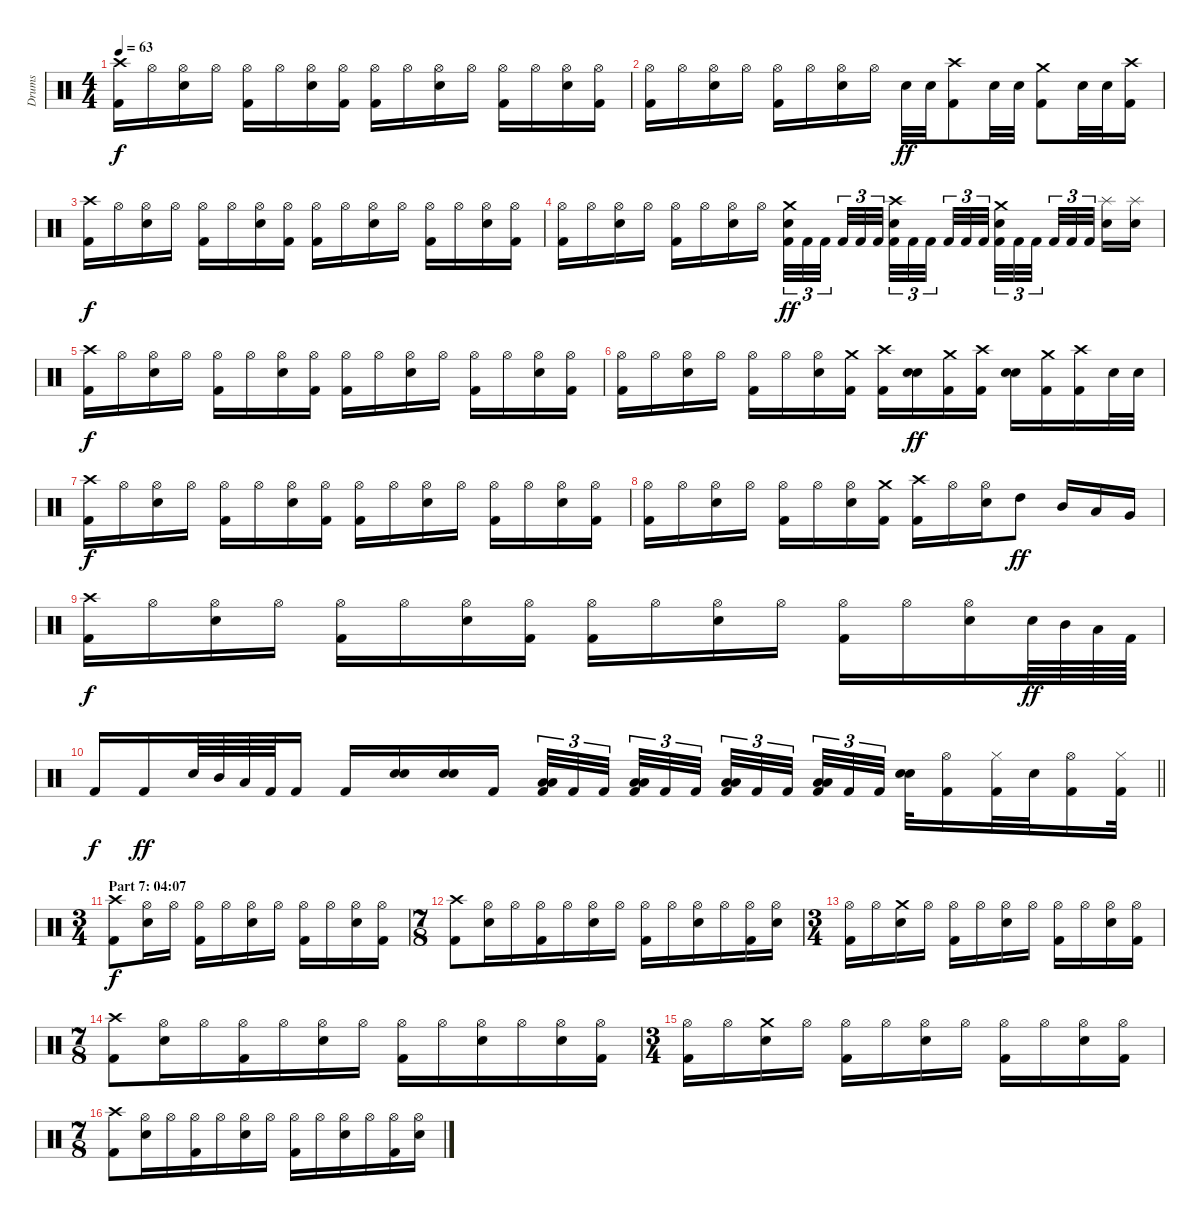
\track ("Drums" "Drums") {instrument percussion}
\staff {score}
\articulation defaults
\ts (4 4)
\tempo 63
\clef neutral
\ks c
("Crash high (hit)" "Kick (hit) 2").16{dy f} "Hi-Hat (open)".16 ("Hi-Hat (open)" "Electric Snare (hit)").16 "Hi-Hat (open)".16 ("Hi-Hat (open)" "Kick (hit) 2").16 "Hi-Hat (open)".16 ("Hi-Hat (open)" "Electric Snare (hit)").16 ("Hi-Hat (open)" "Kick (hit) 2").16 ("Hi-Hat (open)" "Kick (hit) 2").16 "Hi-Hat (open)".16 ("Hi-Hat (open)" "Electric Snare (hit)").16 "Hi-Hat (open)".16 ("Hi-Hat (open)" "Kick (hit) 2").16 "Hi-Hat (open)".16 ("Hi-Hat (open)" "Electric Snare (hit)").16 ("Hi-Hat (open)" "Kick (hit) 2").16 |
("Hi-Hat (open)" "Kick (hit) 2").16 "Hi-Hat (open)".16 ("Hi-Hat (open)" "Electric Snare (hit)").16 "Hi-Hat (open)".16 ("Hi-Hat (open)" "Kick (hit) 2").16 "Hi-Hat (open)".16 ("Hi-Hat (open)" "Electric Snare (hit)").16 "Hi-Hat (open)".16 "Electric Snare (hit)".32{dy ff} "Electric Snare (hit)".32 ("Crash high (hit)" "Kick (hit) 2").8 "Electric Snare (hit)".32 "Electric Snare (hit)".32 ("Crash medium (hit)" "Kick (hit) 2").8 "Electric Snare (hit)".32 "Electric Snare (hit)".32 ("Crash high (hit)" "Kick (hit) 2").16 |
("Crash high (hit)" "Kick (hit) 2").16{dy f} "Hi-Hat (open)".16 ("Hi-Hat (open)" "Electric Snare (hit)").16 "Hi-Hat (open)".16 ("Hi-Hat (open)" "Kick (hit) 2").16 "Hi-Hat (open)".16 ("Hi-Hat (open)" "Electric Snare (hit)").16 ("Hi-Hat (open)" "Kick (hit) 2").16 ("Hi-Hat (open)" "Kick (hit) 2").16 "Hi-Hat (open)".16 ("Hi-Hat (open)" "Electric Snare (hit)").16 "Hi-Hat (open)".16 ("Hi-Hat (open)" "Kick (hit) 2").16 "Hi-Hat (open)".16 ("Hi-Hat (open)" "Electric Snare (hit)").16 ("Hi-Hat (open)" "Kick (hit) 2").16 |
("Hi-Hat (open)" "Kick (hit) 2").16 "Hi-Hat (open)".16 ("Hi-Hat (open)" "Electric Snare (hit)").16 "Hi-Hat (open)".16 ("Hi-Hat (open)" "Kick (hit) 2").16 "Hi-Hat (open)".16 ("Hi-Hat (open)" "Electric Snare (hit)").16 "Hi-Hat (open)".16 ("Crash medium (hit)" "Electric Snare (hit)" "Kick (hit) 2").32{tu (3 2) dy ff} "Kick (hit) 2".32{tu (3 2)} "Kick (hit) 2".32{tu (3 2) beam splitsecondary} "Kick (hit) 2".32{tu (3 2)} "Kick (hit) 2".32{tu (3 2)} "Kick (hit) 2".32{tu (3 2) beam splitsecondary} ("Crash high (hit)" "Electric Snare (hit)" "Kick (hit) 2").32{tu (3 2)} "Kick (hit) 2".32{tu (3 2)} "Kick (hit) 2".32{tu (3 2) beam splitsecondary} "Kick (hit) 2".32{tu (3 2)} "Kick (hit) 2".32{tu (3 2)} "Kick (hit) 2".32{tu (3 2)} ("Crash medium (hit)" "Electric Snare (hit)" "Kick (hit) 2").32{tu (3 2)} "Kick (hit) 2".32{tu (3 2)} "Kick (hit) 2".32{tu (3 2) beam splitsecondary} "Kick (hit) 2".32{tu (3 2)} "Kick (hit) 2".32{tu (3 2)} "Kick (hit) 2".32{tu (3 2) beam splitsecondary} ("Splash (hit)" "Electric Snare (hit)").16 ("Splash (hit)" "Electric Snare (hit)").16 |
("Crash high (hit)" "Kick (hit) 2").16{dy f} "Hi-Hat (open)".16 ("Hi-Hat (open)" "Electric Snare (hit)").16 "Hi-Hat (open)".16 ("Hi-Hat (open)" "Kick (hit) 2").16 "Hi-Hat (open)".16 ("Hi-Hat (open)" "Electric Snare (hit)").16 ("Hi-Hat (open)" "Kick (hit) 2").16 ("Hi-Hat (open)" "Kick (hit) 2").16 "Hi-Hat (open)".16 ("Hi-Hat (open)" "Electric Snare (hit)").16 "Hi-Hat (open)".16 ("Hi-Hat (open)" "Kick (hit) 2").16 "Hi-Hat (open)".16 ("Hi-Hat (open)" "Electric Snare (hit)").16 ("Hi-Hat (open)" "Kick (hit) 2").16 |
("Hi-Hat (open)" "Kick (hit) 2").16 "Hi-Hat (open)".16 ("Hi-Hat (open)" "Electric Snare (hit)").16 "Hi-Hat (open)".16 ("Hi-Hat (open)" "Kick (hit) 2").16 "Hi-Hat (open)".16 ("Hi-Hat (open)" "Electric Snare (hit)").16 ("Crash medium (hit)" "Kick (hit) 2").16 ("Crash high (hit)" "Kick (hit) 2").16 ("Electric Snare (hit)" "Electric Snare (hit)").16{bu 120 dy ff} ("Crash medium (hit)" "Kick (hit) 2").16 ("Crash high (hit)" "Kick (hit) 2").16 ("Electric Snare (hit)" "Electric Snare (hit)").16{bu 120} ("Crash medium (hit)" "Kick (hit) 2").16 ("Crash high (hit)" "Kick (hit) 2").16 "Electric Snare (hit)".32 "Electric Snare (hit)".32 |
("Crash high (hit)" "Kick (hit) 2").16{dy f} "Hi-Hat (open)".16 ("Hi-Hat (open)" "Electric Snare (hit)").16 "Hi-Hat (open)".16 ("Hi-Hat (open)" "Kick (hit) 2").16 "Hi-Hat (open)".16 ("Hi-Hat (open)" "Electric Snare (hit)").16 ("Hi-Hat (open)" "Kick (hit) 2").16 ("Hi-Hat (open)" "Kick (hit) 2").16 "Hi-Hat (open)".16 ("Hi-Hat (open)" "Electric Snare (hit)").16 "Hi-Hat (open)".16 ("Hi-Hat (open)" "Kick (hit) 2").16 "Hi-Hat (open)".16 ("Hi-Hat (open)" "Electric Snare (hit)").16 ("Hi-Hat (open)" "Kick (hit) 2").16 |
("Hi-Hat (open)" "Kick (hit) 2").16 "Hi-Hat (open)".16 ("Hi-Hat (open)" "Electric Snare (hit)").16 "Hi-Hat (open)".16 ("Hi-Hat (open)" "Kick (hit) 2").16 "Hi-Hat (open)".16 ("Hi-Hat (open)" "Electric Snare (hit)").16 ("Crash medium (hit)" "Kick (hit) 2").16 ("Crash high (hit)" "Kick (hit) 2").16 "Hi-Hat (open)".16 ("Hi-Hat (open)" "Electric Snare (hit)").16 "High Tom (hit)".8{dy ff} "Mid Tom (hit)".16 "Low Tom (hit)".16 "Very Low Tom (hit)".16 |
("Crash high (hit)" "Kick (hit) 2").16{dy f} "Hi-Hat (open)".16 ("Hi-Hat (open)" "Electric Snare (hit)").16 "Hi-Hat (open)".16 ("Hi-Hat (open)" "Kick (hit) 2").16 "Hi-Hat (open)".16 ("Hi-Hat (open)" "Electric Snare (hit)").16 ("Hi-Hat (open)" "Kick (hit) 2").16 ("Hi-Hat (open)" "Kick (hit) 2").16 "Hi-Hat (open)".16 ("Hi-Hat (open)" "Electric Snare (hit)").16 "Hi-Hat (open)".16 ("Hi-Hat (open)" "Kick (hit) 2").16 "Hi-Hat (open)".16 ("Hi-Hat (open)" "Electric Snare (hit)").16 "Electric Snare (hit)".64{dy ff} "Mid Tom (hit)".64 "Low Tom (hit)".64 "Kick (hit) 2".64 |
\barLineRight lightlight "Kick (hit) 2".16{dy f} "Kick (hit) 2".16{dy ff} "Electric Snare (hit)".64 "Mid Tom (hit)".64 "Low Tom (hit)".64 "Kick (hit) 2".64 "Kick (hit) 2".16 "Kick (hit) 2".16
("Electric Snare (hit)" "Electric Snare (hit)").16{bu 120} ("Electric Snare (hit)" "Electric Snare (hit)").16{bu 120} "Kick (hit) 2".16 ("Low Tom (hit)" "Low Floor Tom (hit)" "Kick (hit) 2").32{tu (3 2) bd 60} "Kick (hit) 2".32{tu (3 2)} "Kick (hit) 2".32{tu (3 2) beam splitsecondary} ("Low Tom (hit)" "Low Floor Tom (hit)" "Kick (hit) 2").32{tu (3 2) bd 60} "Kick (hit) 2".32{tu (3 2)} "Kick (hit) 2".32{tu (3 2) beam splitsecondary} ("Low Tom (hit)" "Low Floor Tom (hit)" "Kick (hit) 2").32{tu (3 2) bd 60} "Kick (hit) 2".32{tu (3 2)} "Kick (hit) 2".32{tu (3 2) beam splitsecondary} ("Low Tom (hit)" "Low Floor Tom (hit)" "Kick (hit) 2").32{tu (3 2) bd 60} "Kick (hit) 2".32{tu (3 2)} "Kick (hit) 2".32{tu (3 2)} ("Electric Snare (hit)" "Electric Snare (hit)").32{bu 60} ("Hi-Hat (open)" "Kick (hit) 2").16 ("Hi-Hat (closed)" "Kick (hit) 2").32 "Electric Snare (hit)".32 ("Hi-Hat (open)" "Kick (hit) 2").16 ("Hi-Hat (closed)" "Kick (hit) 2").32 |
\ts (3 4)
\section ("" "Part 7: 04:07")
("Crash high (hit)" "Kick (hit) 2").8{dy f} ("Hi-Hat (open)" "Electric Snare (hit)").16 "Hi-Hat (open)".16 ("Hi-Hat (open)" "Kick (hit) 2").16 "Hi-Hat (open)".16 ("Hi-Hat (open)" "Electric Snare (hit)").16 "Hi-Hat (open)".16 ("Hi-Hat (open)" "Kick (hit) 2").16 "Hi-Hat (open)".16 ("Hi-Hat (open)" "Electric Snare (hit)").16 ("Hi-Hat (open)" "Kick (hit) 2").16 |
\ts (7 8)
("Crash high (hit)" "Kick (hit) 2").8 ("Hi-Hat (open)" "Electric Snare (hit)").16 "Hi-Hat (open)".16 ("Hi-Hat (open)" "Kick (hit) 2").16 "Hi-Hat (open)".16 ("Hi-Hat (open)" "Electric Snare (hit)").16 "Hi-Hat (open)".16 ("Hi-Hat (open)" "Kick (hit) 2").16 "Hi-Hat (open)".16 ("Hi-Hat (open)" "Electric Snare (hit)").16 "Hi-Hat (open)".16 ("Hi-Hat (open)" "Kick (hit) 2").16 ("Hi-Hat (open)" "Electric Snare (hit)").16 |
\ts (3 4)
("Hi-Hat (open)" "Kick (hit) 2").16 "Hi-Hat (open)".16 ("Crash medium (hit)" "Electric Snare (hit)").16 "Hi-Hat (open)".16 ("Hi-Hat (open)" "Kick (hit) 2").16 "Hi-Hat (open)".16 ("Hi-Hat (open)" "Electric Snare (hit)").16 "Hi-Hat (open)".16 ("Hi-Hat (open)" "Kick (hit) 2").16 "Hi-Hat (open)".16 ("Hi-Hat (open)" "Electric Snare (hit)").16 ("Hi-Hat (open)" "Kick (hit) 2").16 |
\ts (7 8)
("Crash high (hit)" "Kick (hit) 2").8 ("Hi-Hat (open)" "Electric Snare (hit)").16 "Hi-Hat (open)".16 ("Hi-Hat (open)" "Kick (hit) 2").16 "Hi-Hat (open)".16 ("Hi-Hat (open)" "Electric Snare (hit)").16 "Hi-Hat (open)".16 ("Hi-Hat (open)" "Kick (hit) 2").16 "Hi-Hat (open)".16 ("Hi-Hat (open)" "Electric Snare (hit)").16 "Hi-Hat (open)".16 ("Hi-Hat (open)" "Electric Snare (hit)").16 ("Hi-Hat (open)" "Kick (hit) 2").16 |
\ts (3 4)
("Hi-Hat (open)" "Kick (hit) 2").16 "Hi-Hat (open)".16 ("Crash medium (hit)" "Electric Snare (hit)").16 "Hi-Hat (open)".16 ("Hi-Hat (open)" "Kick (hit) 2").16 "Hi-Hat (open)".16 ("Hi-Hat (open)" "Electric Snare (hit)").16 "Hi-Hat (open)".16 ("Hi-Hat (open)" "Kick (hit) 2").16 "Hi-Hat (open)".16 ("Hi-Hat (open)" "Electric Snare (hit)").16 ("Hi-Hat (open)" "Kick (hit) 2").16 |
\ts (7 8)
("Crash high (hit)" "Kick (hit) 2").8 ("Hi-Hat (open)" "Electric Snare (hit)").16 "Hi-Hat (open)".16 ("Hi-Hat (open)" "Kick (hit) 2").16 "Hi-Hat (open)".16 ("Hi-Hat (open)" "Electric Snare (hit)").16 "Hi-Hat (open)".16 ("Hi-Hat (open)" "Kick (hit) 2").16 "Hi-Hat (open)".16 ("Hi-Hat (open)" "Electric Snare (hit)").16 "Hi-Hat (open)".16 ("Hi-Hat (open)" "Kick (hit) 2").16 ("Hi-Hat (open)" "Electric Snare (hit)").16
